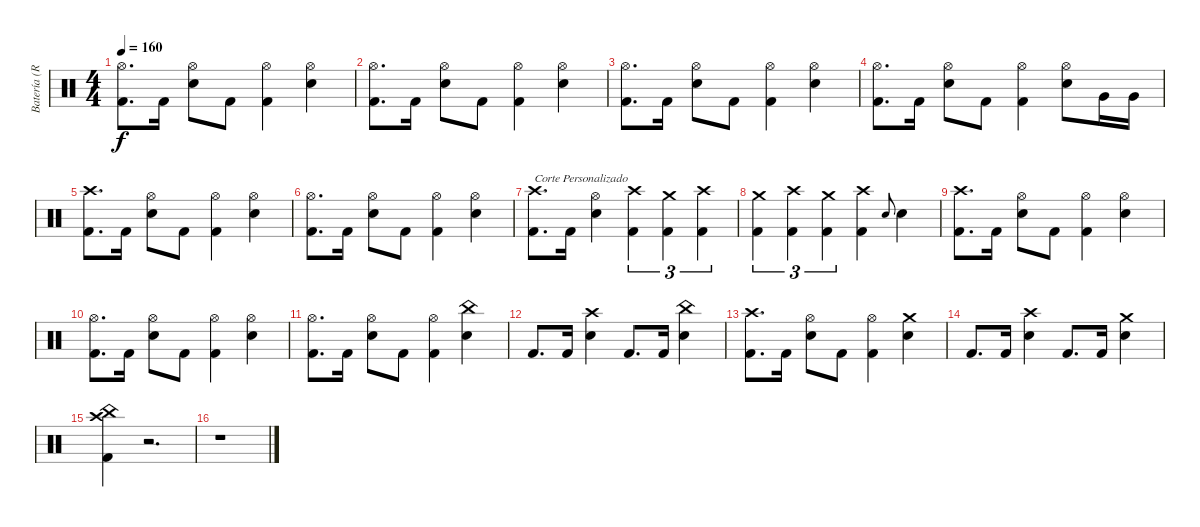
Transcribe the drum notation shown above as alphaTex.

\track ("Batería (Robert)" "Batería (R") {instrument percussion}
\staff {score}
\articulation defaults
\ts (4 4)
\tempo 160
\clef neutral
\ks c
("Kick (hit) 2" "Hi-Hat (open)").8{d dy f} "Kick (hit) 2".16 ("Hi-Hat (open)" "Electric Snare (hit)").8 "Kick (hit) 2".8 ("Kick (hit) 2" "Hi-Hat (open)").4 ("Hi-Hat (open)" "Electric Snare (hit)").4 |
("Kick (hit) 2" "Hi-Hat (open)").8{d} "Kick (hit) 2".16 ("Hi-Hat (open)" "Electric Snare (hit)").8 "Kick (hit) 2".8 ("Kick (hit) 2" "Hi-Hat (open)").4 ("Hi-Hat (open)" "Electric Snare (hit)").4 |
("Kick (hit) 2" "Hi-Hat (open)").8{d} "Kick (hit) 2".16 ("Hi-Hat (open)" "Electric Snare (hit)").8 "Kick (hit) 2".8 ("Kick (hit) 2" "Hi-Hat (open)").4 ("Hi-Hat (open)" "Electric Snare (hit)").4 |
("Kick (hit) 2" "Hi-Hat (open)").8{d} "Kick (hit) 2".16 ("Hi-Hat (open)" "Electric Snare (hit)").8 "Kick (hit) 2".8 ("Kick (hit) 2" "Hi-Hat (open)").4 ("Hi-Hat (open)" "Electric Snare (hit)").8 "Very Low Tom (hit)".16 "Very Low Tom (hit)".16 |
("Kick (hit) 2" "Crash high (hit)").8{d} "Kick (hit) 2".16 ("Hi-Hat (open)" "Electric Snare (hit)").8 "Kick (hit) 2".8 ("Kick (hit) 2" "Hi-Hat (open)").4 ("Hi-Hat (open)" "Electric Snare (hit)").4 |
("Kick (hit) 2" "Hi-Hat (open)").8{d} "Kick (hit) 2".16 ("Hi-Hat (open)" "Electric Snare (hit)").8 "Kick (hit) 2".8 ("Kick (hit) 2" "Hi-Hat (open)").4 ("Hi-Hat (open)" "Electric Snare (hit)").4 |
("Kick (hit) 2" "Crash high (hit)").8{d txt "Corte Personalizado"} "Kick (hit) 2".16 ("Hi-Hat (open)" "Electric Snare (hit)").4 ("Kick (hit) 2" "Crash high (hit)").4{tu (3 2)} ("Kick (hit) 2" "Crash medium (hit)").4{tu (3 2)} ("Kick (hit) 2" "Crash high (hit)").4{tu (3 2)} |
("Kick (hit) 2" "Crash medium (hit)").4{tu (3 2)} ("Kick (hit) 2" "Crash high (hit)").4{tu (3 2)} ("Kick (hit) 2" "Crash medium (hit)").4{tu (3 2)} ("Kick (hit) 2" "Crash high (hit)").4 "Electric Snare (hit)".8{gr onbeat} "Electric Snare (hit)".4 |
("Kick (hit) 2" "Crash high (hit)").8{d} "Kick (hit) 2".16 ("Hi-Hat (open)" "Electric Snare (hit)").8 "Kick (hit) 2".8 ("Kick (hit) 2" "Hi-Hat (open)").4 ("Hi-Hat (open)" "Electric Snare (hit)").4 |
("Kick (hit) 2" "Hi-Hat (open)").8{d} "Kick (hit) 2".16 ("Hi-Hat (open)" "Electric Snare (hit)").8 "Kick (hit) 2".8 ("Kick (hit) 2" "Hi-Hat (open)").4 ("Hi-Hat (open)" "Electric Snare (hit)").4 |
("Kick (hit) 2" "Hi-Hat (open)").8{d} "Kick (hit) 2".16 ("Hi-Hat (open)" "Electric Snare (hit)").8 "Kick (hit) 2".8 ("Kick (hit) 2" "Hi-Hat (open)").4 ("China (hit)" "Electric Snare (hit)").4 |
"Kick (hit) 2".8{d} "Kick (hit) 2".16 ("Crash high (hit)" "Electric Snare (hit)").4 "Kick (hit) 2".8{d} "Kick (hit) 2".16 ("China (hit)" "Electric Snare (hit)").4 |
("Kick (hit) 2" "Crash high (hit)").8{d} "Kick (hit) 2".16 ("Hi-Hat (open)" "Electric Snare (hit)").8 "Kick (hit) 2".8 ("Kick (hit) 2" "Hi-Hat (open)").4 ("Crash medium (hit)" "Electric Snare (hit)").4 |
"Kick (hit) 2".8{d} "Kick (hit) 2".16 ("Crash high (hit)" "Electric Snare (hit)").4 "Kick (hit) 2".8{d} "Kick (hit) 2".16 ("Crash medium (hit)" "Electric Snare (hit)").4 |
("Kick (hit) 2" "China (hit)" "Crash high (hit)").4 r.2{d} |
r.1
